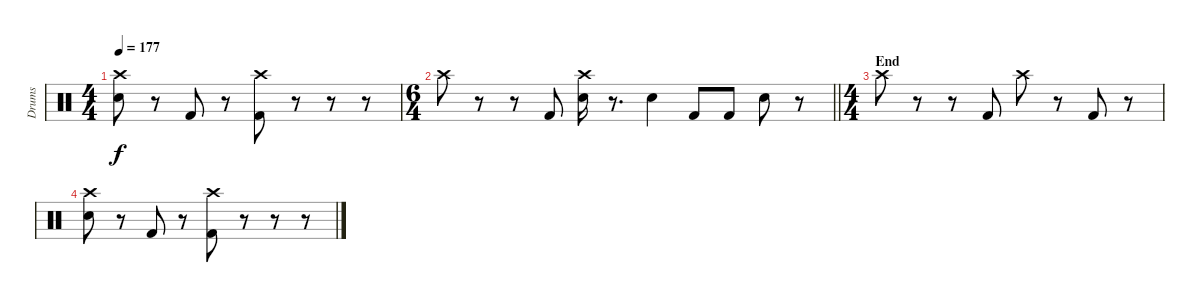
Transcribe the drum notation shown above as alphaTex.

\track ("Drums" "Drums") {instrument percussion}
\staff {score}
\articulation defaults
\ts (4 4)
\tempo 177
\clef neutral
\ks c
("Crash high (hit)" "Electric Snare (hit)").8{dy f} r.8 "Kick (hit) 2".8 r.8 ("Crash high (hit)" "Kick (hit) 2").8 r.8 r.8 r.8 |
\ts (6 4)
\barLineRight lightlight "Crash high (hit)".8
r.8 r.8 "Kick (hit) 2".8 ("Crash high (hit)" "Electric Snare (hit)").16 r.8{d} "Electric Snare (hit)".4 "Kick (hit) 2".8 "Kick (hit) 2".8 "Electric Snare (hit)".8 r.8 |
\ts (4 4)
\section ("" "End")
"Crash high (hit)".8 r.8 r.8 "Kick (hit) 2".8 "Crash high (hit)".8 r.8 "Kick (hit) 2".8 r.8 |
("Crash high (hit)" "Electric Snare (hit)").8 r.8 "Kick (hit) 2".8 r.8 ("Crash high (hit)" "Kick (hit) 2").8 r.8 r.8 r.8
